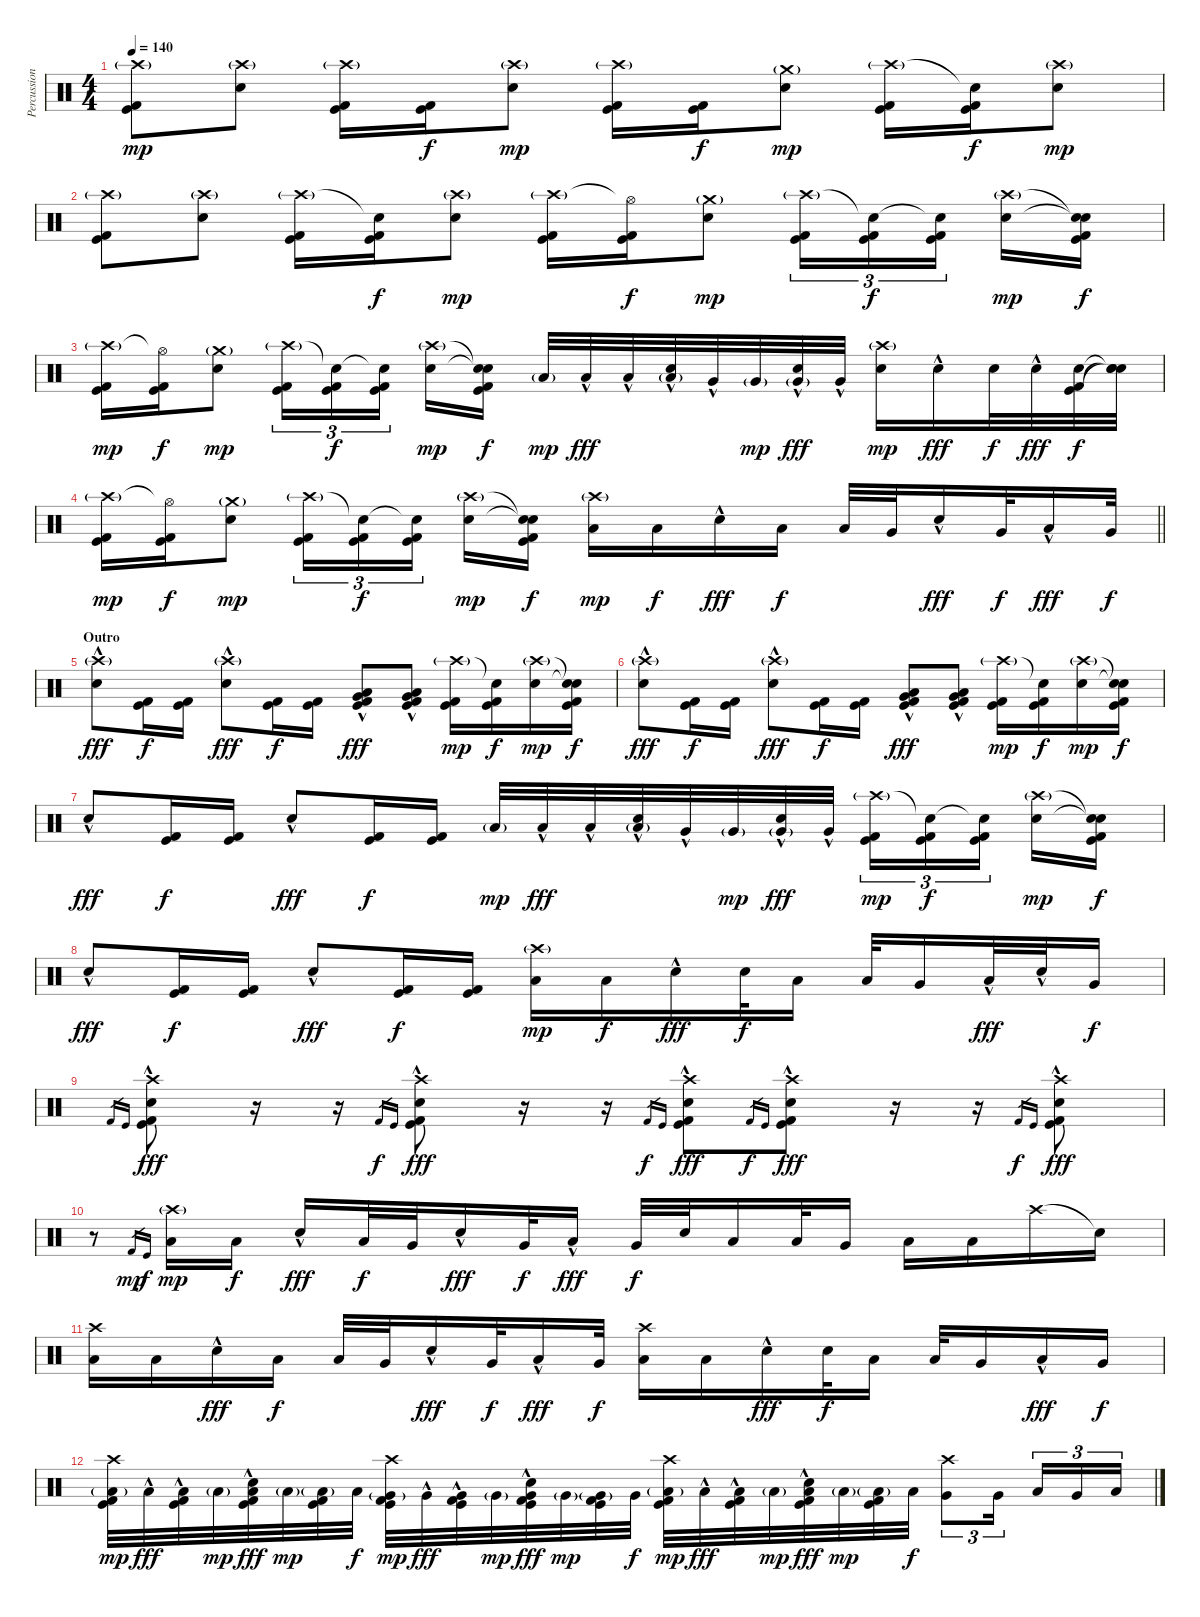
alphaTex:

\track ("Percussion" "Percussion") {instrument percussion}
\staff {score}
\articulation defaults
\ts (4 4)
\tempo 140
\clef neutral
\ks c
("Crash high (hit)"{g} "Kick (hit) 2" "Kick (hit)").8{dy mp} ("Crash high (hit)"{g} "Electric Snare (hit)").8 ("Crash high (hit)"{g} "Kick (hit) 2" "Kick (hit)").16 ("Kick (hit) 2" "Kick (hit)").16{dy f} ("Crash high (hit)"{g} "Electric Snare (hit)").8{dy mp} ("Crash high (hit)"{g} "Kick (hit) 2" "Kick (hit)").16 ("Kick (hit) 2" "Kick (hit)").16{dy f} ("Crash medium (hit)"{g} "Electric Snare (hit)").8{dy mp} ("Crash high (hit)"{g} "Kick (hit) 2" "Kick (hit)").16 ("Snare (hit)"{t} "Kick (hit) 2" "Kick (hit)").16{dy f} ("Crash high (hit)"{g} "Electric Snare (hit)").8{dy mp} |
("Crash high (hit)"{g} "Kick (hit) 2" "Kick (hit)").8 ("Crash high (hit)"{g} "Electric Snare (hit)").8 ("Crash high (hit)"{g} "Kick (hit) 2" "Kick (hit)").16 ("Snare (hit)"{t} "Kick (hit) 2" "Kick (hit)").16{dy f} ("Crash high (hit)"{g} "Electric Snare (hit)").8{dy mp} ("Crash high (hit)"{g} "Kick (hit) 2" "Kick (hit)").16 ("Hi-Hat (open)"{t} "Kick (hit) 2" "Kick (hit)").16{dy f} ("Crash medium (hit)"{g} "Electric Snare (hit)").8{dy mp} ("Crash high (hit)"{g} "Kick (hit) 2" "Kick (hit)").16{tu (3 2)} ("Snare (hit)"{t} "Kick (hit) 2" "Kick (hit)").16{tu (3 2) dy f} ("Snare (hit)"{t} "Kick (hit) 2" "Kick (hit)").16{tu (3 2) beam splitsecondary} ("Crash high (hit)"{g} "Electric Snare (hit)").16{dy mp} ("Snare (hit)"{t} "Snare (hit)"{t} "Kick (hit) 2" "Kick (hit)").16{dy f} |
("Crash high (hit)"{g} "Kick (hit) 2" "Kick (hit)").16{dy mp} ("Hi-Hat (open)"{t} "Kick (hit) 2" "Kick (hit)").16{dy f} ("Crash medium (hit)"{g} "Electric Snare (hit)").8{dy mp} ("Crash high (hit)"{g} "Kick (hit) 2" "Kick (hit)").16{tu (3 2)} ("Snare (hit)"{t} "Kick (hit) 2" "Kick (hit)").16{tu (3 2) dy f} ("Snare (hit)"{t} "Kick (hit) 2" "Kick (hit)").16{tu (3 2) beam splitsecondary} ("Crash high (hit)"{g} "Electric Snare (hit)").16{dy mp} ("Snare (hit)"{t} "Snare (hit)"{t} "Kick (hit) 2" "Kick (hit)").16{dy f} "Low Tom (hit)"{g}.32{dy mp} "Low Tom (hit)"{hac}.32{dy fff} "Low Tom (hit)"{hac}.32 ("Low Tom (hit)"{g} "Electric Snare (hit)"{hac}).32 "Very Low Tom (hit)"{hac}.32 "Very Low Tom (hit)"{g}.32{dy mp} ("Very Low Tom (hit)"{g} "Electric Snare (hit)"{hac}).32{dy fff} "Very Low Tom (hit)"{hac}.32 ("Crash high (hit)"{g} "Electric Snare (hit)").16{dy mp} "Electric Snare (hit)"{hac}.16{dy fff} "Electric Snare (hit)".32{dy f} "Electric Snare (hit)"{hac}.32{dy fff} ("Electric Snare (hit)" "Kick (hit) 2" "Kick (hit)").32{dy f} ("Snare (hit)"{t} "Snare (hit)"{t} "Snare (hit)"{t}).32 |
\barLineRight lightlight
("Crash high (hit)"{g} "Kick (hit) 2" "Kick (hit)").16{dy mp} ("Hi-Hat (open)"{t} "Kick (hit) 2" "Kick (hit)").16{dy f} ("Crash medium (hit)"{g} "Electric Snare (hit)").8{dy mp} ("Crash high (hit)"{g} "Kick (hit) 2" "Kick (hit)").16{tu (3 2)} ("Snare (hit)"{t} "Kick (hit) 2" "Kick (hit)").16{tu (3 2) dy f} ("Snare (hit)"{t} "Kick (hit) 2" "Kick (hit)").16{tu (3 2) beam splitsecondary} ("Crash high (hit)"{g} "Electric Snare (hit)").16{dy mp} ("Snare (hit)"{t} "Snare (hit)"{t} "Kick (hit) 2" "Kick (hit)").16{dy f} ("Crash high (hit)"{g} "Low Tom (hit)").16{dy mp} "Low Tom (hit)".16{dy f} "Electric Snare (hit)"{hac}.16{dy fff} "Low Tom (hit)".16{dy f} "Low Tom (hit)".32 "Very Low Tom (hit)".32 "Electric Snare (hit)"{hac}.16{dy fff} "Very Low Tom (hit)".32{dy f} "Low Tom (hit)"{hac}.16{dy fff} "Very Low Tom (hit)".32{dy f} |
\section ("" "Outro")
("Crash high (hit)"{g} "Electric Snare (hit)"{hac}).8{dy fff} ("Kick (hit) 2" "Kick (hit)").16{dy f} ("Kick (hit) 2" "Kick (hit)").16 ("Crash high (hit)"{g} "Electric Snare (hit)"{hac}).8{dy fff} ("Kick (hit) 2" "Kick (hit)").16{dy f} ("Kick (hit) 2" "Kick (hit)").16 ("Low Tom (hit)"{hac} "Very Low Tom (hit)"{hac} "Kick (hit) 2"{hac} "Kick (hit)"{hac}).8{dy fff} ("Very Low Tom (hit)"{hac} "Low Floor Tom (hit)"{hac} "Kick (hit) 2"{hac} "Kick (hit)"{hac}).8 ("Crash high (hit)"{g} "Kick (hit) 2" "Kick (hit)").16{dy mp} ("Snare (hit)"{t} "Kick (hit) 2" "Kick (hit)").16{dy f} ("Crash high (hit)"{g} "Electric Snare (hit)").16{dy mp} ("Snare (hit)"{t} "Snare (hit)"{t} "Kick (hit) 2" "Kick (hit)").16{dy f} |
("Crash high (hit)"{g} "Electric Snare (hit)"{hac}).8{dy fff} ("Kick (hit) 2" "Kick (hit)").16{dy f} ("Kick (hit) 2" "Kick (hit)").16 ("Crash high (hit)"{g} "Electric Snare (hit)"{hac}).8{dy fff} ("Kick (hit) 2" "Kick (hit)").16{dy f} ("Kick (hit) 2" "Kick (hit)").16 ("Low Tom (hit)"{hac} "Very Low Tom (hit)"{hac} "Kick (hit) 2"{hac} "Kick (hit)"{hac}).8{dy fff} ("Very Low Tom (hit)"{hac} "Low Floor Tom (hit)"{hac} "Kick (hit) 2"{hac} "Kick (hit)"{hac}).8 ("Crash high (hit)"{g} "Kick (hit) 2" "Kick (hit)").16{dy mp} ("Snare (hit)"{t} "Kick (hit) 2" "Kick (hit)").16{dy f} ("Crash high (hit)"{g} "Electric Snare (hit)").16{dy mp} ("Snare (hit)"{t} "Snare (hit)"{t} "Kick (hit) 2" "Kick (hit)").16{dy f} |
"Electric Snare (hit)"{hac}.8{dy fff} ("Kick (hit) 2" "Kick (hit)").16{dy f} ("Kick (hit) 2" "Kick (hit)").16 "Electric Snare (hit)"{hac}.8{dy fff} ("Kick (hit) 2" "Kick (hit)").16{dy f} ("Kick (hit) 2" "Kick (hit)").16 "Low Tom (hit)"{g}.32{dy mp} "Low Tom (hit)"{hac}.32{dy fff} "Low Tom (hit)"{hac}.32 ("Low Tom (hit)"{g} "Electric Snare (hit)"{hac}).32 "Very Low Tom (hit)"{hac}.32 "Very Low Tom (hit)"{g}.32{dy mp} ("Very Low Tom (hit)"{g} "Electric Snare (hit)"{hac}).32{dy fff} "Very Low Tom (hit)"{hac}.32 ("Crash high (hit)"{g} "Kick (hit) 2" "Kick (hit)").16{tu (3 2) dy mp} ("Snare (hit)"{t} "Kick (hit) 2" "Kick (hit)").16{tu (3 2) dy f} ("Snare (hit)"{t} "Kick (hit) 2" "Kick (hit)").16{tu (3 2) beam splitsecondary} ("Crash high (hit)"{g} "Electric Snare (hit)").16{dy mp} ("Snare (hit)"{t} "Snare (hit)"{t} "Kick (hit) 2" "Kick (hit)").16{dy f} |
"Electric Snare (hit)"{hac}.8{dy fff} ("Kick (hit) 2" "Kick (hit)").16{dy f} ("Kick (hit) 2" "Kick (hit)").16 "Electric Snare (hit)"{hac}.8{dy fff} ("Kick (hit) 2" "Kick (hit)").16{dy f} ("Kick (hit) 2" "Kick (hit)").16 ("Crash high (hit)"{g} "Low Tom (hit)").16{dy mp} "Low Tom (hit)".16{dy f} "Electric Snare (hit)"{hac}.16{dy fff} "Electric Snare (hit)".32{dy f} "Low Tom (hit)".16 "Low Tom (hit)".32 "Very Low Tom (hit)".16 "Low Tom (hit)"{hac}.32{dy fff} "Electric Snare (hit)"{hac}.32 "Very Low Tom (hit)".16{dy f} |
"Kick (hit) 2".16{gr} "Kick (hit)".16{gr} ("Crash high (hit)" "Electric Snare (hit)" "Kick (hit)" "Kick (hit) 2"{hac}).8{dy fff} r.16 r.16 "Kick (hit) 2".16{gr dy f} "Kick (hit)".16{gr} ("Crash high (hit)" "Electric Snare (hit)" "Kick (hit)" "Kick (hit) 2"{hac}).8{dy fff} r.16 r.16 "Kick (hit) 2".16{gr dy f} "Kick (hit)".16{gr} ("Crash high (hit)" "Electric Snare (hit)" "Kick (hit)" "Kick (hit) 2"{hac}).8{dy fff} "Kick (hit) 2".16{gr dy f} "Kick (hit)".16{gr} ("Crash high (hit)" "Electric Snare (hit)" "Kick (hit)" "Kick (hit) 2"{hac}).8{dy fff} r.16 r.16 "Kick (hit) 2".16{gr dy f} "Kick (hit)".16{gr} ("Crash high (hit)" "Electric Snare (hit)" "Kick (hit)" "Kick (hit) 2"{hac}).8{dy fff} |
r.8 "Kick (hit) 2".16{gr dy mp} "Kick (hit)".16{gr dy f} ("Crash high (hit)"{g} "Low Tom (hit)").16{dy mp} "Low Tom (hit)".16{dy f} "Electric Snare (hit)"{hac}.16{dy fff} "Low Tom (hit)".32{dy f} "Very Low Tom (hit)".32 "Electric Snare (hit)"{hac}.16{dy fff} "Very Low Tom (hit)".32{dy f} "Low Tom (hit)"{hac}.16{dy fff} "Very Low Tom (hit)".32{dy f} "Electric Snare (hit)".32 "Low Tom (hit)".16 "Low Tom (hit)".32 "Very Low Tom (hit)".16 "Low Tom (hit)".16 "Low Tom (hit)".16 "Crash high (hit)".16 "Snare (hit)"{t}.16 |
("Crash high (hit)" "Low Tom (hit)").16 "Low Tom (hit)".16 "Electric Snare (hit)"{hac}.16{dy fff} "Low Tom (hit)".16{dy f} "Low Tom (hit)".32 "Very Low Tom (hit)".32 "Electric Snare (hit)"{hac}.16{dy fff} "Very Low Tom (hit)".32{dy f} "Low Tom (hit)"{hac}.16{dy fff} "Very Low Tom (hit)".32{dy f} ("Crash high (hit)" "Low Tom (hit)").16 "Low Tom (hit)".16 "Electric Snare (hit)"{hac}.16{dy fff} "Electric Snare (hit)".32{dy f} "Low Tom (hit)".16 "Low Tom (hit)".32 "Very Low Tom (hit)".16 "Low Tom (hit)"{hac}.16{dy fff} "Very Low Tom (hit)".16{dy f} |
("Crash high (hit)" "Low Tom (hit)"{g} "Kick (hit) 2" "Kick (hit)").32{dy mp} "Low Tom (hit)"{hac}.32{dy fff} ("Low Tom (hit)"{hac} "Kick (hit) 2" "Kick (hit)").32 "Low Tom (hit)"{g}.32{dy mp} ("Low Tom (hit)" "Kick (hit) 2" "Electric Snare (hit)"{hac} "Kick (hit)").32{dy fff} "Low Tom (hit)"{g}.32{dy mp} ("Low Tom (hit)"{g} "Kick (hit) 2" "Kick (hit)").32 "Low Tom (hit)".32{dy f} ("Crash high (hit)" "Very Low Tom (hit)"{g} "Kick (hit) 2" "Kick (hit)").32{dy mp} "Very Low Tom (hit)"{hac}.32{dy fff} ("Very Low Tom (hit)"{hac} "Kick (hit) 2" "Kick (hit)").32 "Very Low Tom (hit)"{g}.32{dy mp} ("Very Low Tom (hit)" "Kick (hit) 2" "Electric Snare (hit)"{hac} "Kick (hit)").32{dy fff} "Very Low Tom (hit)"{g}.32{dy mp} ("Very Low Tom (hit)"{g} "Kick (hit) 2" "Kick (hit)").32 "Very Low Tom (hit)".32{dy f} ("Crash high (hit)" "Low Floor Tom (hit)"{g} "Kick (hit) 2" "Kick (hit)").32{dy mp} "Low Floor Tom (hit)"{hac}.32{dy fff} ("Low Floor Tom (hit)"{hac} "Kick (hit) 2" "Kick (hit)").32 "Low Floor Tom (hit)"{g}.32{dy mp} ("Low Floor Tom (hit)" "Kick (hit) 2" "Electric Snare (hit)"{hac} "Kick (hit)").32{dy fff} "Low Floor Tom (hit)"{g}.32{dy mp} ("Low Floor Tom (hit)"{g} "Kick (hit) 2" "Kick (hit)").32 "Low Floor Tom (hit)".32{dy f} ("Crash high (hit)" "Very Low Tom (hit)").8{tu (3 2)} "Very Low Tom (hit)".16{tu (3 2) beam splitsecondary} "Low Tom (hit)".16{tu (3 2)} "Very Low Tom (hit)".16{tu (3 2)} "Low Floor Tom (hit)".16{tu (3 2)}
